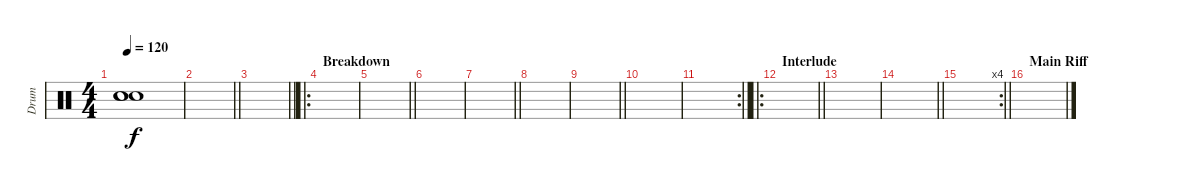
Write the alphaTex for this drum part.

\track ("Drum " "Drum ") {instrument percussion}
\staff {score}
\articulation defaults
\ts (4 4)
\tempo 120
\clef neutral
\ks c
("Snare (hit)"{t} "Snare (hit)"{t} "Snare (hit)"{t}).1{dy f} |
\barLineRight lightlight
|
\barLineRight lightlight
|
\ro
\section ("" "Breakdown")
|
\barLineRight lightlight
|
|
\barLineRight lightlight
|
|
\barLineRight lightlight
|
|
\rc 2
\barLineRight lightlight
|
\ro
\section ("" "Interlude")
\barLineRight lightlight
|
|
\barLineRight lightlight
|
\rc 4
\barLineRight lightlight
|
\section ("" "Main Riff")
